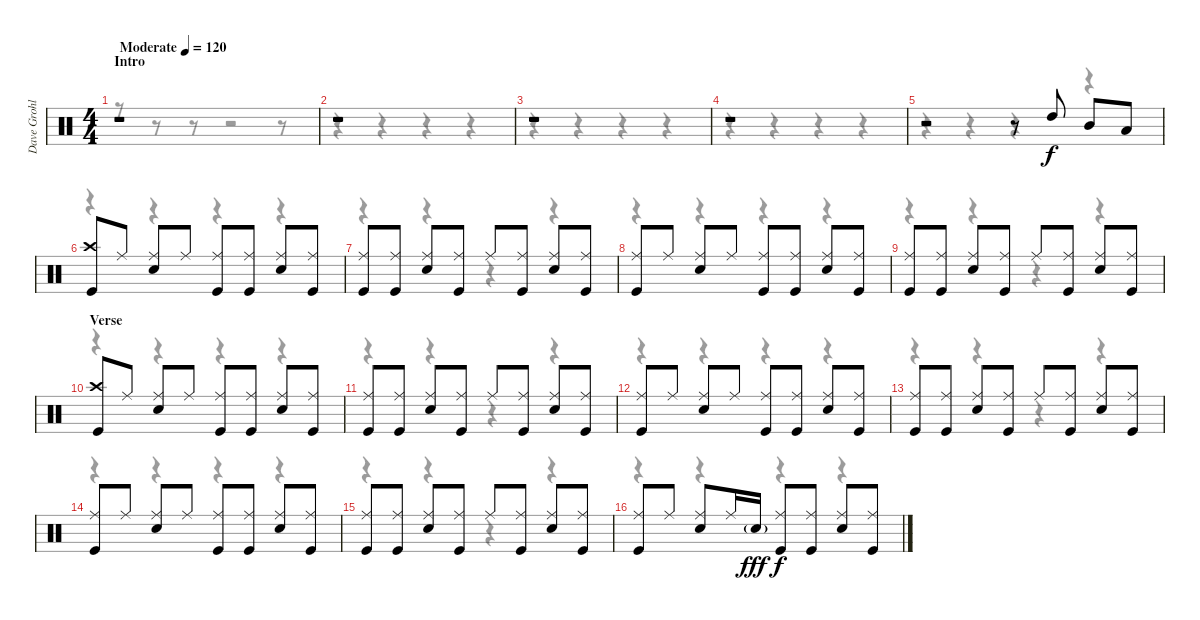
\track ("Dave Grohl" "Dave Grohl") {instrument percussion}
\staff {score}
\articulation defaults
\voice
\ts (4 4)
\section ("" "Intro")
\tempo (120 "Moderate")
\clef neutral
\ks c
r.1{dy f} |
r.1 |
r.1 |
r.1 |
r.2 r.8 "High Tom (hit)".8 "Mid Tom (hit)".8 "Low Tom (hit)".8 |
("Crash high (hit)" "Kick (hit)").8 "Ride (middle)".8 ("Ride (middle)" "Snare (hit) 2").8 "Ride (middle)".8 ("Ride (middle)" "Kick (hit)").8 ("Ride (middle)" "Kick (hit)").8 ("Ride (middle)" "Snare (hit) 2").8 ("Ride (middle)" "Kick (hit)").8 |
("Ride (middle)" "Kick (hit)").8 ("Ride (middle)" "Kick (hit)").8 ("Ride (middle)" "Snare (hit) 2").8 ("Ride (middle)" "Kick (hit)").8 "Ride (middle)".8 ("Ride (middle)" "Kick (hit)").8 ("Ride (middle)" "Snare (hit) 2").8 ("Ride (middle)" "Kick (hit)").8 |
("Ride (middle)" "Kick (hit)").8 "Ride (middle)".8 ("Ride (middle)" "Snare (hit) 2").8 "Ride (middle)".8 ("Ride (middle)" "Kick (hit)").8 ("Ride (middle)" "Kick (hit)").8 ("Ride (middle)" "Snare (hit) 2").8 ("Ride (middle)" "Kick (hit)").8 |
("Ride (middle)" "Kick (hit)").8 ("Ride (middle)" "Kick (hit)").8 ("Ride (middle)" "Snare (hit) 2").8 ("Ride (middle)" "Kick (hit)").8 "Ride (middle)".8 ("Ride (middle)" "Kick (hit)").8 ("Ride (middle)" "Snare (hit) 2").8 ("Ride (middle)" "Kick (hit)").8 |
\section ("" "Verse")
("Crash high (hit)" "Kick (hit)").8 "Ride (middle)".8 ("Ride (middle)" "Snare (hit) 2").8 "Ride (middle)".8 ("Ride (middle)" "Kick (hit)").8 ("Ride (middle)" "Kick (hit)").8 ("Ride (middle)" "Snare (hit) 2").8 ("Ride (middle)" "Kick (hit)").8 |
("Ride (middle)" "Kick (hit)").8 ("Ride (middle)" "Kick (hit)").8 ("Ride (middle)" "Snare (hit) 2").8 ("Ride (middle)" "Kick (hit)").8 "Ride (middle)".8 ("Ride (middle)" "Kick (hit)").8 ("Ride (middle)" "Snare (hit) 2").8 ("Ride (middle)" "Kick (hit)").8 |
("Ride (middle)" "Kick (hit)").8 "Ride (middle)".8 ("Ride (middle)" "Snare (hit) 2").8 "Ride (middle)".8 ("Ride (middle)" "Kick (hit)").8 ("Ride (middle)" "Kick (hit)").8 ("Ride (middle)" "Snare (hit) 2").8 ("Ride (middle)" "Kick (hit)").8 |
("Ride (middle)" "Kick (hit)").8 ("Ride (middle)" "Kick (hit)").8 ("Ride (middle)" "Snare (hit) 2").8 ("Ride (middle)" "Kick (hit)").8 "Ride (middle)".8 ("Ride (middle)" "Kick (hit)").8 ("Ride (middle)" "Snare (hit) 2").8 ("Ride (middle)" "Kick (hit)").8 |
("Ride (middle)" "Kick (hit)").8 "Ride (middle)".8 ("Ride (middle)" "Snare (hit) 2").8 "Ride (middle)".8 ("Ride (middle)" "Kick (hit)").8 ("Ride (middle)" "Kick (hit)").8 ("Ride (middle)" "Snare (hit) 2").8 ("Ride (middle)" "Kick (hit)").8 |
("Ride (middle)" "Kick (hit)").8 ("Ride (middle)" "Kick (hit)").8 ("Ride (middle)" "Snare (hit) 2").8 ("Ride (middle)" "Kick (hit)").8 "Ride (middle)".8 ("Ride (middle)" "Kick (hit)").8 ("Ride (middle)" "Snare (hit) 2").8 ("Ride (middle)" "Kick (hit)").8 |
("Ride (middle)" "Kick (hit)").8 "Ride (middle)".8 ("Ride (middle)" "Snare (hit) 2").8 "Ride (middle)".16 "Snare (hit) 2"{g}.16{dy fff} ("Ride (middle)" "Kick (hit)").8{dy f} ("Ride (middle)" "Kick (hit)").8 ("Ride (middle)" "Snare (hit) 2").8 ("Ride (middle)" "Kick (hit)").8
\voice
\clef neutral
\ottava regular
\simile none
\ks c
r.8{dy f} r.8 r.8 r.2 r.8 |
r.4 r.4 r.4 r.4 |
r.4 r.4 r.4 r.4 |
r.4 r.4 r.4 r.4 |
r.4 r.4 r.4 r.4 |
r.4 r.4 r.4 r.4 |
r.4 r.4 r.4 r.4 |
r.4 r.4 r.4 r.4 |
r.4 r.4 r.4 r.4 |
r.4 r.4 r.4 r.4 |
r.4 r.4 r.4 r.4 |
r.4 r.4 r.4 r.4 |
r.4 r.4 r.4 r.4 |
r.4 r.4 r.4 r.4 |
r.4 r.4 r.4 r.4 |
r.4 r.4 r.4 r.4
